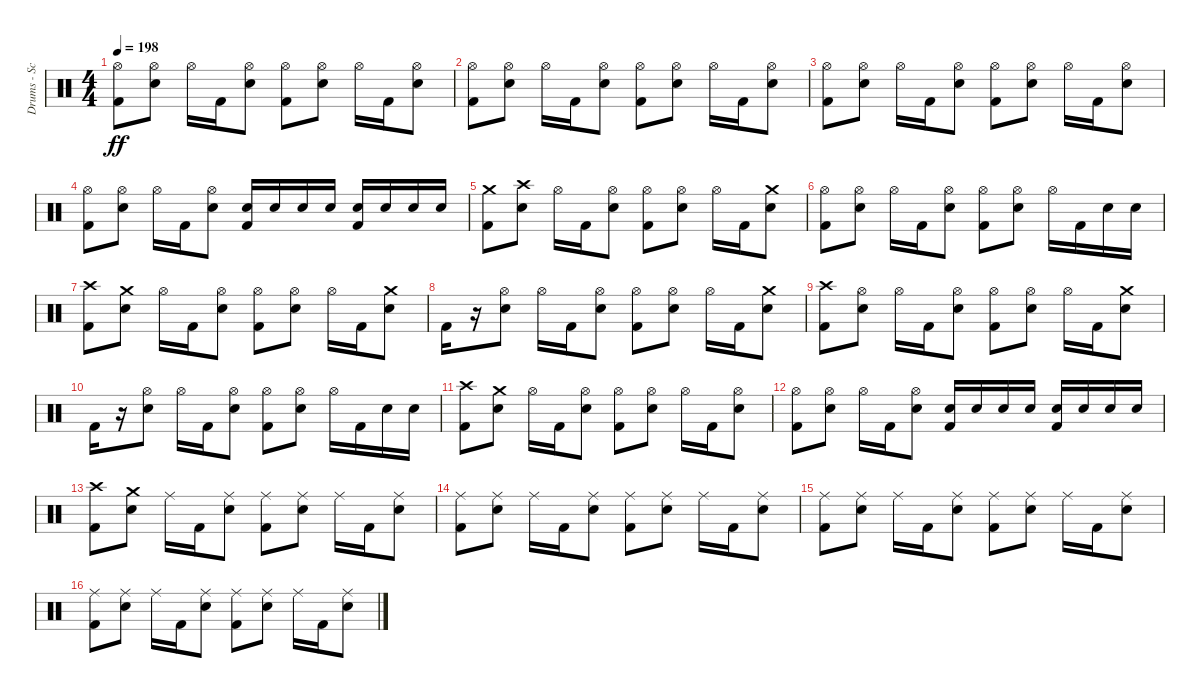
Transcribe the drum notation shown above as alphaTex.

\track ("Drums - Scott" "Drums - Sc") {instrument percussion}
\staff {score}
\articulation defaults
\ts (4 4)
\tempo 198
\clef neutral
\ks c
("Hi-Hat (open)" "Kick (hit) 2").8{dy ff} ("Hi-Hat (open)" "Electric Snare (hit)").8 "Hi-Hat (open)".16 "Kick (hit) 2".16 ("Hi-Hat (open)" "Electric Snare (hit)").8 ("Hi-Hat (open)" "Kick (hit) 2").8 ("Hi-Hat (open)" "Electric Snare (hit)").8 "Hi-Hat (open)".16 "Kick (hit) 2".16 ("Hi-Hat (open)" "Electric Snare (hit)").8 |
("Hi-Hat (open)" "Kick (hit) 2").8 ("Hi-Hat (open)" "Electric Snare (hit)").8 "Hi-Hat (open)".16 "Kick (hit) 2".16 ("Hi-Hat (open)" "Electric Snare (hit)").8 ("Hi-Hat (open)" "Kick (hit) 2").8 ("Hi-Hat (open)" "Electric Snare (hit)").8 "Hi-Hat (open)".16 "Kick (hit) 2".16 ("Hi-Hat (open)" "Electric Snare (hit)").8 |
("Hi-Hat (open)" "Kick (hit) 2").8 ("Hi-Hat (open)" "Electric Snare (hit)").8 "Hi-Hat (open)".16 "Kick (hit) 2".16 ("Hi-Hat (open)" "Electric Snare (hit)").8 ("Hi-Hat (open)" "Kick (hit) 2").8 ("Hi-Hat (open)" "Electric Snare (hit)").8 "Hi-Hat (open)".16 "Kick (hit) 2".16 ("Hi-Hat (open)" "Electric Snare (hit)").8 |
("Hi-Hat (open)" "Kick (hit) 2").8 ("Hi-Hat (open)" "Electric Snare (hit)").8 "Hi-Hat (open)".16 "Kick (hit) 2".16 ("Hi-Hat (open)" "Electric Snare (hit)").8 ("Kick (hit) 2" "Electric Snare (hit)").16 "Electric Snare (hit)".16 "Electric Snare (hit)".16 "Electric Snare (hit)".16 ("Kick (hit) 2" "Electric Snare (hit)").16 "Electric Snare (hit)".16 "Electric Snare (hit)".16 "Electric Snare (hit)".16 |
("Kick (hit) 2" "Crash medium (hit)").8 ("Electric Snare (hit)" "Crash high (hit)").8 "Hi-Hat (open)".16 "Kick (hit) 2".16 ("Electric Snare (hit)" "Hi-Hat (open)").8 ("Kick (hit) 2" "Hi-Hat (open)").8 ("Electric Snare (hit)" "Hi-Hat (open)").8 "Hi-Hat (open)".16 "Kick (hit) 2".16 ("Electric Snare (hit)" "Crash medium (hit)").8 |
("Kick (hit) 2" "Hi-Hat (open)").8 ("Electric Snare (hit)" "Hi-Hat (open)").8 "Hi-Hat (open)".16 "Kick (hit) 2".16 ("Electric Snare (hit)" "Hi-Hat (open)").8 ("Kick (hit) 2" "Hi-Hat (open)").8 ("Electric Snare (hit)" "Hi-Hat (open)").8 "Hi-Hat (open)".16 "Kick (hit) 2".16 "Electric Snare (hit)".16 "Electric Snare (hit)".16 |
("Kick (hit) 2" "Crash high (hit)").8 ("Electric Snare (hit)" "Crash medium (hit)").8 "Hi-Hat (open)".16 "Kick (hit) 2".16 ("Electric Snare (hit)" "Hi-Hat (open)").8 ("Kick (hit) 2" "Hi-Hat (open)").8 ("Electric Snare (hit)" "Hi-Hat (open)").8 "Hi-Hat (open)".16 "Kick (hit) 2".16 ("Electric Snare (hit)" "Crash medium (hit)").8 |
"Kick (hit) 2".16 r.16 ("Electric Snare (hit)" "Hi-Hat (open)").8 "Hi-Hat (open)".16 "Kick (hit) 2".16 ("Electric Snare (hit)" "Hi-Hat (open)").8 ("Kick (hit) 2" "Hi-Hat (open)").8 ("Electric Snare (hit)" "Hi-Hat (open)").8 "Hi-Hat (open)".16 "Kick (hit) 2".16 ("Electric Snare (hit)" "Crash medium (hit)").8 |
("Kick (hit) 2" "Crash high (hit)").8 ("Electric Snare (hit)" "Hi-Hat (open)").8 "Hi-Hat (open)".16 "Kick (hit) 2".16 ("Electric Snare (hit)" "Hi-Hat (open)").8 ("Kick (hit) 2" "Hi-Hat (open)").8 ("Electric Snare (hit)" "Hi-Hat (open)").8 "Hi-Hat (open)".16 "Kick (hit) 2".16 ("Electric Snare (hit)" "Crash medium (hit)").8 |
"Kick (hit) 2".16 r.16 ("Electric Snare (hit)" "Hi-Hat (open)").8 "Hi-Hat (open)".16 "Kick (hit) 2".16 ("Electric Snare (hit)" "Hi-Hat (open)").8 ("Kick (hit) 2" "Hi-Hat (open)").8 ("Electric Snare (hit)" "Hi-Hat (open)").8 "Hi-Hat (open)".16 "Kick (hit) 2".16 "Electric Snare (hit)".16 "Electric Snare (hit)".16 |
("Kick (hit) 2" "Crash high (hit)").8 ("Electric Snare (hit)" "Crash medium (hit)").8 "Hi-Hat (open)".16 "Kick (hit) 2".16 ("Electric Snare (hit)" "Hi-Hat (open)").8 ("Kick (hit) 2" "Hi-Hat (open)").8 ("Electric Snare (hit)" "Hi-Hat (open)").8 "Hi-Hat (open)".16 "Kick (hit) 2".16 ("Electric Snare (hit)" "Hi-Hat (open)").8 |
("Kick (hit) 2" "Hi-Hat (open)").8 ("Electric Snare (hit)" "Hi-Hat (open)").8 "Hi-Hat (open)".16 "Kick (hit) 2".16 ("Electric Snare (hit)" "Hi-Hat (open)").8 ("Kick (hit) 2" "Electric Snare (hit)").16 "Electric Snare (hit)".16 "Electric Snare (hit)".16 "Electric Snare (hit)".16 ("Kick (hit) 2" "Electric Snare (hit)").16 "Electric Snare (hit)".16 "Electric Snare (hit)".16 "Electric Snare (hit)".16 |
("Kick (hit) 2" "Crash high (hit)").8 ("Electric Snare (hit)" "Crash medium (hit)").8 "Ride (middle)".16 "Kick (hit) 2".16 ("Electric Snare (hit)" "Ride (middle)").8 ("Kick (hit) 2" "Ride (middle)").8 ("Electric Snare (hit)" "Ride (middle)").8 "Ride (middle)".16 "Kick (hit) 2".16 ("Electric Snare (hit)" "Ride (middle)").8 |
("Kick (hit) 2" "Ride (middle)").8 ("Electric Snare (hit)" "Ride (middle)").8 "Ride (middle)".16 "Kick (hit) 2".16 ("Electric Snare (hit)" "Ride (middle)").8 ("Kick (hit) 2" "Ride (middle)").8 ("Electric Snare (hit)" "Ride (middle)").8 "Ride (middle)".16 "Kick (hit) 2".16 ("Electric Snare (hit)" "Ride (middle)").8 |
("Kick (hit) 2" "Ride (middle)").8 ("Electric Snare (hit)" "Ride (middle)").8 "Ride (middle)".16 "Kick (hit) 2".16 ("Electric Snare (hit)" "Ride (middle)").8 ("Kick (hit) 2" "Ride (middle)").8 ("Electric Snare (hit)" "Ride (middle)").8 "Ride (middle)".16 "Kick (hit) 2".16 ("Electric Snare (hit)" "Ride (middle)").8 |
("Kick (hit) 2" "Ride (middle)").8 ("Electric Snare (hit)" "Ride (middle)").8 "Ride (middle)".16 "Kick (hit) 2".16 ("Electric Snare (hit)" "Ride (middle)").8 ("Kick (hit) 2" "Ride (middle)").8 ("Electric Snare (hit)" "Ride (middle)").8 "Ride (middle)".16 "Kick (hit) 2".16 ("Electric Snare (hit)" "Ride (middle)").8
